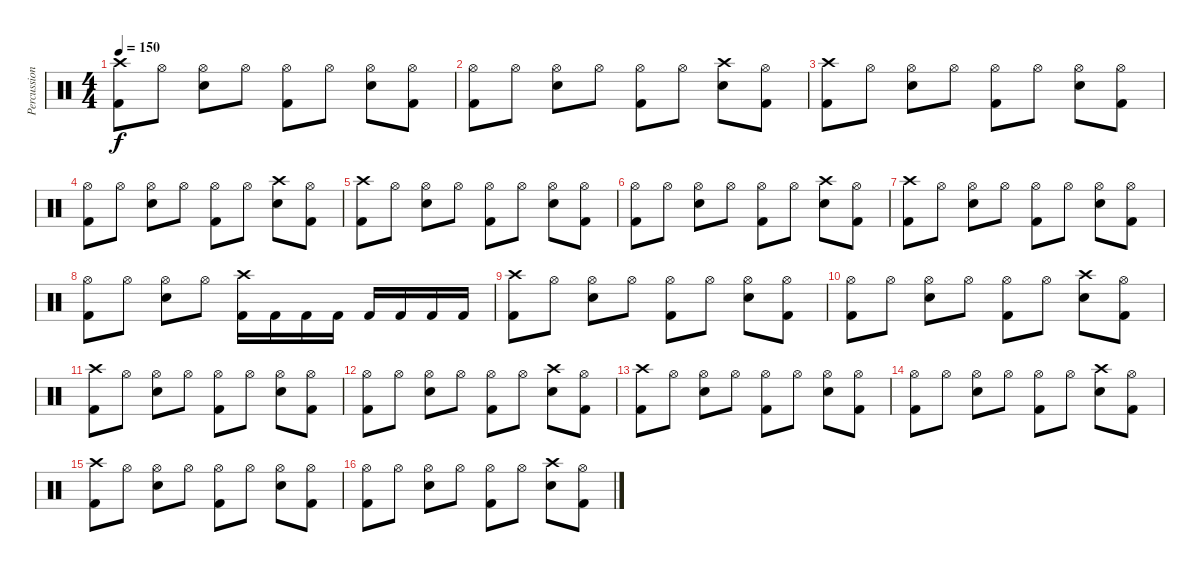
\track ("Percussion" "Percussion") {instrument percussion}
\staff {score}
\articulation defaults
\ts (4 4)
\tempo 150
\clef neutral
\ks c
("Crash high (hit)" "Kick (hit) 2").8{dy f} "Hi-Hat (open)".8 ("Hi-Hat (open)" "Snare (hit) 2").8 "Hi-Hat (open)".8 ("Hi-Hat (open)" "Kick (hit) 2").8 "Hi-Hat (open)".8 ("Hi-Hat (open)" "Snare (hit) 2").8 ("Hi-Hat (open)" "Kick (hit) 2").8 |
("Hi-Hat (open)" "Kick (hit) 2").8 "Hi-Hat (open)".8 ("Hi-Hat (open)" "Snare (hit) 2").8 "Hi-Hat (open)".8 ("Hi-Hat (open)" "Kick (hit) 2").8 "Hi-Hat (open)".8 ("Crash high (hit)" "Snare (hit) 2").8 ("Hi-Hat (open)" "Kick (hit) 2").8 |
("Crash high (hit)" "Kick (hit) 2").8 "Hi-Hat (open)".8 ("Hi-Hat (open)" "Snare (hit) 2").8 "Hi-Hat (open)".8 ("Hi-Hat (open)" "Kick (hit) 2").8 "Hi-Hat (open)".8 ("Hi-Hat (open)" "Snare (hit) 2").8 ("Hi-Hat (open)" "Kick (hit) 2").8 |
("Hi-Hat (open)" "Kick (hit) 2").8 "Hi-Hat (open)".8 ("Hi-Hat (open)" "Snare (hit) 2").8 "Hi-Hat (open)".8 ("Hi-Hat (open)" "Kick (hit) 2").8 "Hi-Hat (open)".8 ("Crash high (hit)" "Snare (hit) 2").8 ("Hi-Hat (open)" "Kick (hit) 2").8 |
("Crash high (hit)" "Kick (hit) 2").8 "Hi-Hat (open)".8 ("Hi-Hat (open)" "Snare (hit) 2").8 "Hi-Hat (open)".8 ("Hi-Hat (open)" "Kick (hit) 2").8 "Hi-Hat (open)".8 ("Hi-Hat (open)" "Snare (hit) 2").8 ("Hi-Hat (open)" "Kick (hit) 2").8 |
("Hi-Hat (open)" "Kick (hit) 2").8 "Hi-Hat (open)".8 ("Hi-Hat (open)" "Snare (hit) 2").8 "Hi-Hat (open)".8 ("Hi-Hat (open)" "Kick (hit) 2").8 "Hi-Hat (open)".8 ("Crash high (hit)" "Snare (hit) 2").8 ("Hi-Hat (open)" "Kick (hit) 2").8 |
("Crash high (hit)" "Kick (hit) 2").8 "Hi-Hat (open)".8 ("Hi-Hat (open)" "Snare (hit) 2").8 "Hi-Hat (open)".8 ("Hi-Hat (open)" "Kick (hit) 2").8 "Hi-Hat (open)".8 ("Hi-Hat (open)" "Snare (hit) 2").8 ("Hi-Hat (open)" "Kick (hit) 2").8 |
("Hi-Hat (open)" "Kick (hit) 2").8 "Hi-Hat (open)".8 ("Hi-Hat (open)" "Snare (hit) 2").8 "Hi-Hat (open)".8 ("Crash high (hit)" "Kick (hit) 2").16 "Kick (hit) 2".16 "Kick (hit) 2".16 "Kick (hit) 2".16 "Kick (hit) 2".16 "Kick (hit) 2".16 "Kick (hit) 2".16 "Kick (hit) 2".16 |
("Crash high (hit)" "Kick (hit) 2").8 "Hi-Hat (open)".8 ("Hi-Hat (open)" "Snare (hit) 2").8 "Hi-Hat (open)".8 ("Hi-Hat (open)" "Kick (hit) 2").8 "Hi-Hat (open)".8 ("Hi-Hat (open)" "Snare (hit) 2").8 ("Hi-Hat (open)" "Kick (hit) 2").8 |
("Hi-Hat (open)" "Kick (hit) 2").8 "Hi-Hat (open)".8 ("Hi-Hat (open)" "Snare (hit) 2").8 "Hi-Hat (open)".8 ("Hi-Hat (open)" "Kick (hit) 2").8 "Hi-Hat (open)".8 ("Crash high (hit)" "Snare (hit) 2").8 ("Hi-Hat (open)" "Kick (hit) 2").8 |
("Crash high (hit)" "Kick (hit) 2").8 "Hi-Hat (open)".8 ("Hi-Hat (open)" "Snare (hit) 2").8 "Hi-Hat (open)".8 ("Hi-Hat (open)" "Kick (hit) 2").8 "Hi-Hat (open)".8 ("Hi-Hat (open)" "Snare (hit) 2").8 ("Hi-Hat (open)" "Kick (hit) 2").8 |
("Hi-Hat (open)" "Kick (hit) 2").8 "Hi-Hat (open)".8 ("Hi-Hat (open)" "Snare (hit) 2").8 "Hi-Hat (open)".8 ("Hi-Hat (open)" "Kick (hit) 2").8 "Hi-Hat (open)".8 ("Crash high (hit)" "Snare (hit) 2").8 ("Hi-Hat (open)" "Kick (hit) 2").8 |
("Crash high (hit)" "Kick (hit) 2").8 "Hi-Hat (open)".8 ("Hi-Hat (open)" "Snare (hit) 2").8 "Hi-Hat (open)".8 ("Hi-Hat (open)" "Kick (hit) 2").8 "Hi-Hat (open)".8 ("Hi-Hat (open)" "Snare (hit) 2").8 ("Hi-Hat (open)" "Kick (hit) 2").8 |
("Hi-Hat (open)" "Kick (hit) 2").8 "Hi-Hat (open)".8 ("Hi-Hat (open)" "Snare (hit) 2").8 "Hi-Hat (open)".8 ("Hi-Hat (open)" "Kick (hit) 2").8 "Hi-Hat (open)".8 ("Crash high (hit)" "Snare (hit) 2").8 ("Hi-Hat (open)" "Kick (hit) 2").8 |
("Crash high (hit)" "Kick (hit) 2").8 "Hi-Hat (open)".8 ("Hi-Hat (open)" "Snare (hit) 2").8 "Hi-Hat (open)".8 ("Hi-Hat (open)" "Kick (hit) 2").8 "Hi-Hat (open)".8 ("Hi-Hat (open)" "Snare (hit) 2").8 ("Hi-Hat (open)" "Kick (hit) 2").8 |
("Hi-Hat (open)" "Kick (hit) 2").8 "Hi-Hat (open)".8 ("Hi-Hat (open)" "Snare (hit) 2").8 "Hi-Hat (open)".8 ("Hi-Hat (open)" "Kick (hit) 2").8 "Hi-Hat (open)".8 ("Crash high (hit)" "Snare (hit) 2").8 ("Hi-Hat (open)" "Kick (hit) 2").8
